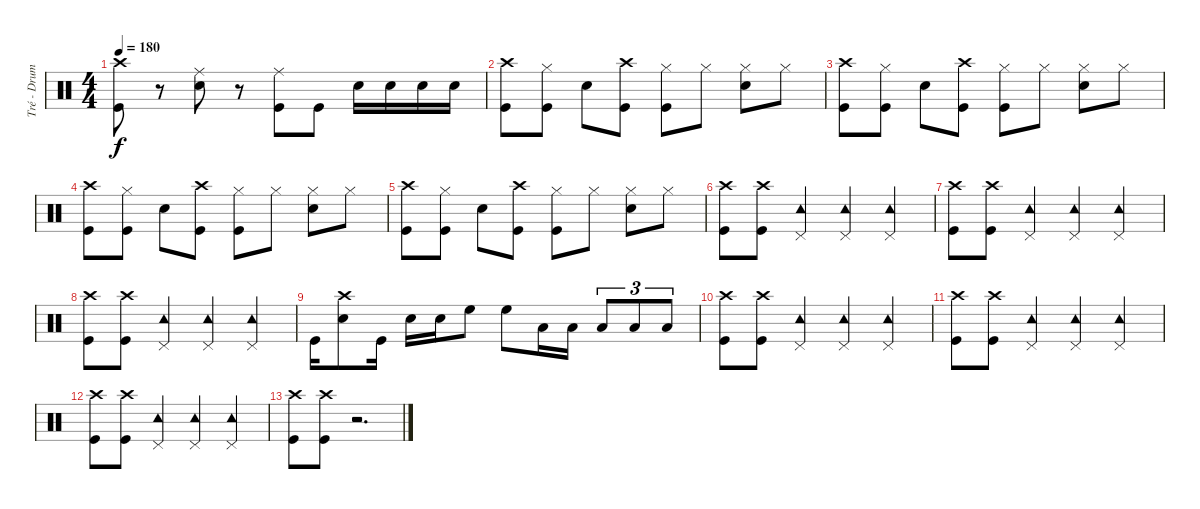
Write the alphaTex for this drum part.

\track ("Tré - Drums" "Tré - Drum") {instrument percussion}
\staff {score}
\articulation defaults
\ts (4 4)
\tempo 180
\clef neutral
\ks c
("Crash high (hit)" "Kick (hit)").8{dy f} r.8 ("Ride (middle)" "Electric Snare (hit)").8 r.8 ("Ride (middle)" "Kick (hit)").8 "Kick (hit)".8 "Electric Snare (hit)".16 "Electric Snare (hit)".16 "Electric Snare (hit)".16 "Electric Snare (hit)".16 |
("Crash high (hit)" "Kick (hit)").8 ("Hi-Hat (closed)" "Kick (hit)").8 "Electric Snare (hit)".8 ("Crash high (hit)" "Kick (hit)").8 ("Kick (hit)" "Hi-Hat (closed)").8 "Hi-Hat (closed)".8 ("Hi-Hat (closed)" "Electric Snare (hit)").8 "Hi-Hat (closed)".8 |
("Crash high (hit)" "Kick (hit)").8 ("Hi-Hat (closed)" "Kick (hit)").8 "Electric Snare (hit)".8 ("Crash high (hit)" "Kick (hit)").8 ("Kick (hit)" "Hi-Hat (closed)").8 "Hi-Hat (closed)".8 ("Hi-Hat (closed)" "Electric Snare (hit)").8 "Hi-Hat (closed)".8 |
("Crash high (hit)" "Kick (hit)").8 ("Hi-Hat (closed)" "Kick (hit)").8 "Electric Snare (hit)".8 ("Crash high (hit)" "Kick (hit)").8 ("Kick (hit)" "Hi-Hat (closed)").8 "Hi-Hat (closed)".8 ("Hi-Hat (closed)" "Electric Snare (hit)").8 "Hi-Hat (closed)".8 |
("Crash high (hit)" "Kick (hit)").8 ("Hi-Hat (closed)" "Kick (hit)").8 "Electric Snare (hit)".8 ("Crash high (hit)" "Kick (hit)").8 ("Kick (hit)" "Hi-Hat (closed)").8 "Hi-Hat (closed)".8 ("Hi-Hat (closed)" "Electric Snare (hit)").8 "Hi-Hat (closed)".8 |
("Crash high (hit)" "Kick (hit)").8 ("Crash high (hit)" "Kick (hit)").8 ("Tambourine (hit)" "Pedal Hi-Hat (hit)").4 ("Tambourine (hit)" "Pedal Hi-Hat (hit)").4 ("Tambourine (hit)" "Pedal Hi-Hat (hit)").4 |
("Crash high (hit)" "Kick (hit)").8 ("Crash high (hit)" "Kick (hit)").8 ("Tambourine (hit)" "Pedal Hi-Hat (hit)").4 ("Tambourine (hit)" "Pedal Hi-Hat (hit)").4 ("Tambourine (hit)" "Pedal Hi-Hat (hit)").4 |
("Crash high (hit)" "Kick (hit)").8 ("Crash high (hit)" "Kick (hit)").8 ("Tambourine (hit)" "Pedal Hi-Hat (hit)").4 ("Tambourine (hit)" "Pedal Hi-Hat (hit)").4 ("Tambourine (hit)" "Pedal Hi-Hat (hit)").4 |
"Kick (hit)".16 ("Crash high (hit)" "Electric Snare (hit)").8 "Kick (hit)".16 "Electric Snare (hit)".16 "Electric Snare (hit)".16 "High Floor Tom (hit)".8 "High Floor Tom (hit)".8 "Low Floor Tom (hit)".16 "Low Floor Tom (hit)".16 "Low Floor Tom (hit)".8{tu (3 2)} "Low Floor Tom (hit)".8{tu (3 2)} "Low Floor Tom (hit)".8{tu (3 2)} |
("Crash high (hit)" "Kick (hit)").8 ("Crash high (hit)" "Kick (hit)").8 ("Tambourine (hit)" "Pedal Hi-Hat (hit)").4 ("Tambourine (hit)" "Pedal Hi-Hat (hit)").4 ("Tambourine (hit)" "Pedal Hi-Hat (hit)").4 |
("Crash high (hit)" "Kick (hit)").8 ("Crash high (hit)" "Kick (hit)").8 ("Tambourine (hit)" "Pedal Hi-Hat (hit)").4 ("Tambourine (hit)" "Pedal Hi-Hat (hit)").4 ("Tambourine (hit)" "Pedal Hi-Hat (hit)").4 |
("Crash high (hit)" "Kick (hit)").8 ("Crash high (hit)" "Kick (hit)").8 ("Tambourine (hit)" "Pedal Hi-Hat (hit)").4 ("Tambourine (hit)" "Pedal Hi-Hat (hit)").4 ("Tambourine (hit)" "Pedal Hi-Hat (hit)").4 |
("Crash high (hit)" "Kick (hit)").8 ("Crash high (hit)" "Kick (hit)").8 r.2{d}
